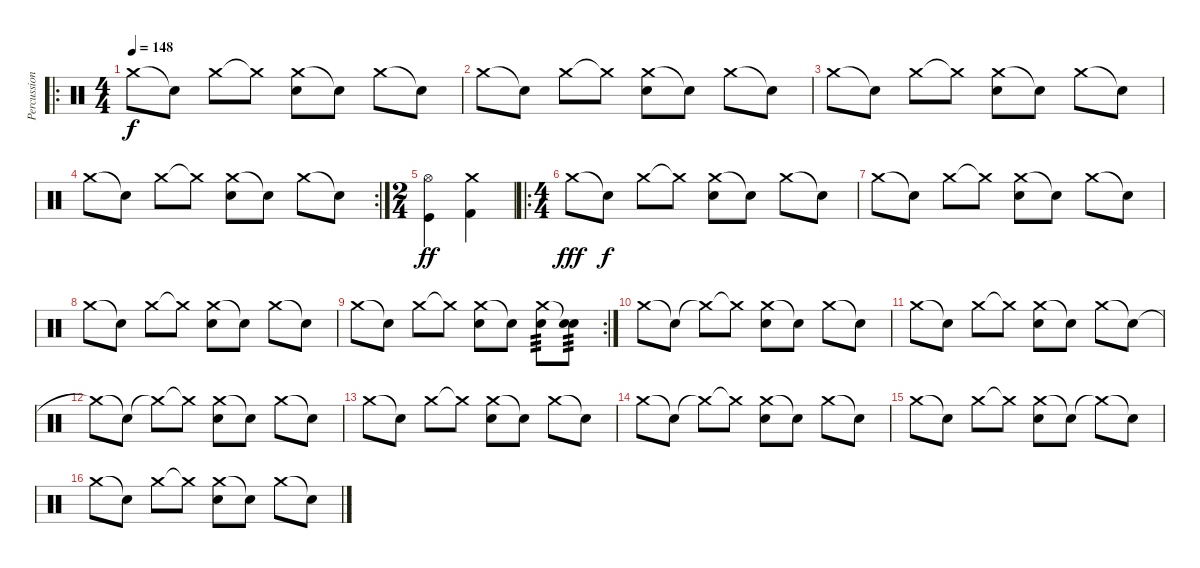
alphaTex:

\track ("Percussion" "Percussion") {instrument percussion}
\staff {score}
\articulation defaults
\ro
\ts (4 4)
\tempo 148
\clef neutral
\ks c "Crash medium (hit)".8{dy f} "Snare (hit)"{t}.8 "Crash medium (hit)".8 "Crash medium (hit)"{t}.8
("Crash medium (hit)" "Snare (hit) 2").8 "Snare (hit)"{t}.8 "Crash medium (hit)".8 "Snare (hit)"{t}.8 |
"Crash medium (hit)".8 "Snare (hit)"{t}.8 "Crash medium (hit)".8 "Crash medium (hit)"{t}.8 ("Crash medium (hit)" "Snare (hit) 2").8 "Snare (hit)"{t}.8 "Crash medium (hit)".8 "Snare (hit)"{t}.8 |
"Crash medium (hit)".8 "Snare (hit)"{t}.8 "Crash medium (hit)".8 "Crash medium (hit)"{t}.8 ("Crash medium (hit)" "Snare (hit) 2").8 "Snare (hit)"{t}.8 "Crash medium (hit)".8 "Snare (hit)"{t}.8 |
\rc 2 "Crash medium (hit)".8 "Snare (hit)"{t}.8 "Crash medium (hit)".8 "Crash medium (hit)"{t}.8
("Crash medium (hit)" "Snare (hit) 2").8 "Snare (hit)"{t}.8 "Crash medium (hit)".8 "Snare (hit)"{t}.8 |
\ts (2 4)
("Hi-Hat (open)" "Kick (hit)").4{dy ff} ("Crash medium (hit)" "Kick (hit) 2").4 |
\ro
\ts (4 4)
"Crash medium (hit)".8{dy fff} "Snare (hit)"{t}.8{dy f} "Crash medium (hit)".8 "Crash medium (hit)"{t}.8 ("Crash medium (hit)" "Snare (hit) 2").8 "Snare (hit)"{t}.8 "Crash medium (hit)".8 "Snare (hit)"{t}.8 |
"Crash medium (hit)".8 "Snare (hit)"{t}.8 "Crash medium (hit)".8 "Crash medium (hit)"{t}.8 ("Crash medium (hit)" "Snare (hit) 2").8 "Snare (hit)"{t}.8 "Crash medium (hit)".8 "Snare (hit)"{t}.8 |
"Crash medium (hit)".8 "Snare (hit)"{t}.8 "Crash medium (hit)".8 "Crash medium (hit)"{t}.8 ("Crash medium (hit)" "Snare (hit) 2").8 "Snare (hit)"{t}.8 "Crash medium (hit)".8 "Snare (hit)"{t}.8 |
\rc 2 "Crash medium (hit)".8 "Snare (hit)"{t}.8 "Crash medium (hit)".8 "Crash medium (hit)"{t}.8
("Crash medium (hit)" "Snare (hit) 2").8 "Snare (hit)"{t}.8 ("Crash medium (hit)" "Snare (hit) 2").8{tp 3} ("Snare (hit)"{t} "Snare (hit) 2").8{tp 3} |
"Crash medium (hit)".8 "Snare (hit)"{t}.8 "Crash medium (hit)"{t}.8 "Crash medium (hit)"{t}.8 ("Crash medium (hit)" "Snare (hit) 2").8 "Snare (hit)"{t}.8 "Crash medium (hit)".8 "Snare (hit)"{t}.8 |
"Crash medium (hit)".8 "Snare (hit)"{t}.8 "Crash medium (hit)".8 "Crash medium (hit)"{t}.8 ("Crash medium (hit)" "Snare (hit) 2").8 "Snare (hit)"{t}.8 "Crash medium (hit)".8 "Snare (hit)"{t}.8 |
"Crash medium (hit)"{t}.8 "Snare (hit)"{t}.8 "Crash medium (hit)"{t}.8 "Crash medium (hit)"{t}.8 ("Crash medium (hit)" "Snare (hit) 2").8 "Snare (hit)"{t}.8 "Crash medium (hit)".8 "Snare (hit)"{t}.8 |
"Crash medium (hit)".8 "Snare (hit)"{t}.8 "Crash medium (hit)".8 "Crash medium (hit)"{t}.8 ("Crash medium (hit)" "Snare (hit) 2").8 "Snare (hit)"{t}.8 "Crash medium (hit)".8 "Snare (hit)"{t}.8 |
"Crash medium (hit)".8 "Snare (hit)"{t}.8 "Crash medium (hit)"{t}.8 "Crash medium (hit)"{t}.8 ("Crash medium (hit)" "Snare (hit) 2").8 "Snare (hit)"{t}.8 "Crash medium (hit)".8 "Snare (hit)"{t}.8 |
"Crash medium (hit)".8 "Snare (hit)"{t}.8 "Crash medium (hit)".8 "Crash medium (hit)"{t}.8 ("Crash medium (hit)" "Snare (hit) 2").8 "Snare (hit)"{t}.8 "Crash medium (hit)"{t}.8 "Snare (hit)"{t}.8 |
"Crash medium (hit)".8 "Snare (hit)"{t}.8 "Crash medium (hit)".8 "Crash medium (hit)"{t}.8 ("Crash medium (hit)" "Snare (hit) 2").8 "Snare (hit)"{t}.8 "Crash medium (hit)".8 "Snare (hit)"{t}.8
